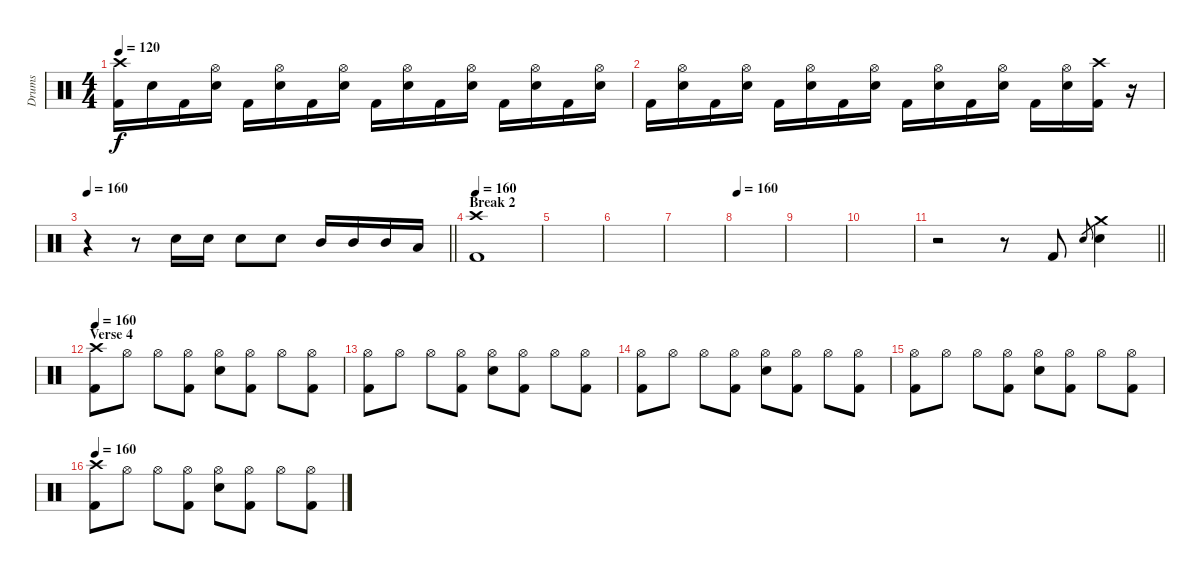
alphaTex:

\track ("Drums" "Drums") {instrument percussion}
\staff {score}
\articulation defaults
\ts (4 4)
\tempo 120
\clef neutral
\ks c
("Crash high (hit)" "Kick (hit) 2").16{dy f} "Electric Snare (hit)".16 "Kick (hit) 2".16 ("Hi-Hat (open)" "Electric Snare (hit)").16 "Kick (hit) 2".16 ("Hi-Hat (open)" "Electric Snare (hit)").16 "Kick (hit) 2".16 ("Hi-Hat (open)" "Electric Snare (hit)").16 "Kick (hit) 2".16 ("Hi-Hat (open)" "Electric Snare (hit)").16 "Kick (hit) 2".16 ("Hi-Hat (open)" "Electric Snare (hit)").16 "Kick (hit) 2".16 ("Hi-Hat (open)" "Electric Snare (hit)").16 "Kick (hit) 2".16 ("Hi-Hat (open)" "Electric Snare (hit)").16 |
"Kick (hit) 2".16 ("Hi-Hat (open)" "Electric Snare (hit)").16 "Kick (hit) 2".16 ("Hi-Hat (open)" "Electric Snare (hit)").16 "Kick (hit) 2".16 ("Hi-Hat (open)" "Electric Snare (hit)").16 "Kick (hit) 2".16 ("Hi-Hat (open)" "Electric Snare (hit)").16 "Kick (hit) 2".16 ("Hi-Hat (open)" "Electric Snare (hit)").16 "Kick (hit) 2".16 ("Hi-Hat (open)" "Electric Snare (hit)").16 "Kick (hit) 2".16 ("Hi-Hat (open)" "Electric Snare (hit)").16 ("Crash high (hit)" "Kick (hit) 2").16 r.16 |
\tempo 160
\barLineRight lightlight
r.4 r.8 "Electric Snare (hit)".16 "Electric Snare (hit)".16 "Electric Snare (hit)".8 "Electric Snare (hit)".8 "Mid Tom (hit)".16 "Mid Tom (hit)".16 "Mid Tom (hit)".16 "Low Tom (hit)".16 |
\section ("" "Break 2")
\tempo 160
("Crash high (hit)" "Kick (hit) 2").1 |
|
|
|
\tempo 160
|
|
|
\barLineRight lightlight
r.2 r.8 "Kick (hit) 2".8 "Electric Snare (hit)".8{gr} ("Crash medium (hit)" "Electric Snare (hit)").4 |
\section ("" "Verse 4")
\tempo 160
("Crash high (hit)" "Kick (hit) 2").8 "Hi-Hat (open)".8 "Hi-Hat (open)".8 ("Hi-Hat (open)" "Kick (hit) 2").8 ("Hi-Hat (open)" "Electric Snare (hit)").8 ("Hi-Hat (open)" "Kick (hit) 2").8 "Hi-Hat (open)".8 ("Hi-Hat (open)" "Kick (hit) 2").8 |
("Hi-Hat (open)" "Kick (hit) 2").8 "Hi-Hat (open)".8 "Hi-Hat (open)".8 ("Hi-Hat (open)" "Kick (hit) 2").8 ("Hi-Hat (open)" "Electric Snare (hit)").8 ("Hi-Hat (open)" "Kick (hit) 2").8 "Hi-Hat (open)".8 ("Hi-Hat (open)" "Kick (hit) 2").8 |
("Hi-Hat (open)" "Kick (hit) 2").8 "Hi-Hat (open)".8 "Hi-Hat (open)".8 ("Hi-Hat (open)" "Kick (hit) 2").8 ("Hi-Hat (open)" "Electric Snare (hit)").8 ("Hi-Hat (open)" "Kick (hit) 2").8 "Hi-Hat (open)".8 ("Hi-Hat (open)" "Kick (hit) 2").8 |
("Hi-Hat (open)" "Kick (hit) 2").8 "Hi-Hat (open)".8 "Hi-Hat (open)".8 ("Hi-Hat (open)" "Kick (hit) 2").8 ("Hi-Hat (open)" "Electric Snare (hit)").8 ("Hi-Hat (open)" "Kick (hit) 2").8 "Hi-Hat (open)".8 ("Hi-Hat (open)" "Kick (hit) 2").8 |
\tempo 160
("Crash high (hit)" "Kick (hit) 2").8 "Hi-Hat (open)".8 "Hi-Hat (open)".8 ("Hi-Hat (open)" "Kick (hit) 2").8 ("Hi-Hat (open)" "Electric Snare (hit)").8 ("Hi-Hat (open)" "Kick (hit) 2").8 "Hi-Hat (open)".8 ("Hi-Hat (open)" "Kick (hit) 2").8
